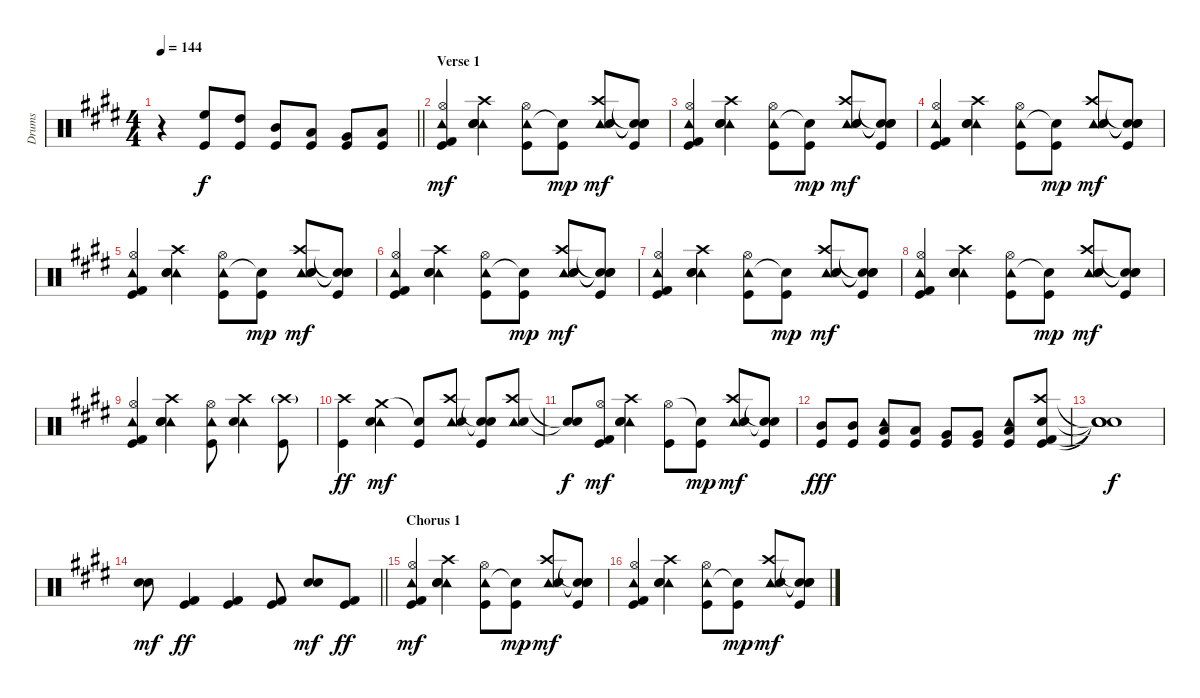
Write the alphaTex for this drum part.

\track ("Drums" "Drums") {instrument percussion}
\staff {score}
\articulation defaults
\ts (4 4)
\tempo 144
\clef neutral
\barLineRight lightlight
\ks c#minor
r.4{dy fff} ("High Floor Tom (hit)" "Kick (hit)").8{dy f} ("High Tom (hit)" "Kick (hit)").8 ("Mid Tom (hit)" "Kick (hit)").8 ("Low Tom (hit)" "Kick (hit)").8 ("Very Low Tom (hit)" "Kick (hit)").8 ("Low Floor Tom (hit)" "Kick (hit)").8 |
\section ("" "Verse 1")
\ks e
("Tambourine (hit)" "Hi-Hat (open)" "Kick (hit) 2" "Kick (hit)").4{dy mf} ("Crash high (hit)" "Tambourine (hit)" "Snare (hit) 2" "Electric Snare (hit)").4 ("Tambourine (hit)" "Hi-Hat (open)" "Kick (hit)").8 ("Snare (hit)"{t} "Kick (hit)").8{dy mp} ("Crash high (hit)" "Tambourine (hit)" "Snare (hit) 2" "Electric Snare (hit)").8{dy mf} ("Snare (hit)"{t} "Snare (hit)"{t} "Snare (hit)"{t} "Kick (hit)").8 |
\ks c#minor
("Tambourine (hit)" "Hi-Hat (open)" "Kick (hit) 2" "Kick (hit)").4 ("Crash high (hit)" "Tambourine (hit)" "Snare (hit) 2" "Electric Snare (hit)").4 ("Tambourine (hit)" "Hi-Hat (open)" "Kick (hit)").8 ("Snare (hit)"{t} "Kick (hit)").8{dy mp} ("Crash high (hit)" "Tambourine (hit)" "Snare (hit) 2" "Electric Snare (hit)").8{dy mf} ("Snare (hit)"{t} "Snare (hit)"{t} "Snare (hit)"{t} "Kick (hit)").8 |
("Tambourine (hit)" "Hi-Hat (open)" "Kick (hit) 2" "Kick (hit)").4 ("Crash high (hit)" "Tambourine (hit)" "Snare (hit) 2" "Electric Snare (hit)").4 ("Tambourine (hit)" "Hi-Hat (open)" "Kick (hit)").8 ("Snare (hit)"{t} "Kick (hit)").8{dy mp} ("Crash high (hit)" "Tambourine (hit)" "Snare (hit) 2" "Electric Snare (hit)").8{dy mf} ("Snare (hit)"{t} "Snare (hit)"{t} "Snare (hit)"{t} "Kick (hit)").8 |
("Tambourine (hit)" "Hi-Hat (open)" "Kick (hit) 2" "Kick (hit)").4 ("Crash high (hit)" "Tambourine (hit)" "Snare (hit) 2" "Electric Snare (hit)").4 ("Tambourine (hit)" "Hi-Hat (open)" "Kick (hit)").8 ("Snare (hit)"{t} "Kick (hit)").8{dy mp} ("Crash high (hit)" "Tambourine (hit)" "Snare (hit) 2" "Electric Snare (hit)").8{dy mf} ("Snare (hit)"{t} "Snare (hit)"{t} "Snare (hit)"{t} "Kick (hit)").8 |
\ks e
("Tambourine (hit)" "Hi-Hat (open)" "Kick (hit) 2" "Kick (hit)").4 ("Crash high (hit)" "Tambourine (hit)" "Snare (hit) 2" "Electric Snare (hit)").4 ("Tambourine (hit)" "Hi-Hat (open)" "Kick (hit)").8 ("Snare (hit)"{t} "Kick (hit)").8{dy mp} ("Crash high (hit)" "Tambourine (hit)" "Snare (hit) 2" "Electric Snare (hit)").8{dy mf} ("Snare (hit)"{t} "Snare (hit)"{t} "Snare (hit)"{t} "Kick (hit)").8 |
\ks c#minor
("Tambourine (hit)" "Hi-Hat (open)" "Kick (hit) 2" "Kick (hit)").4 ("Crash high (hit)" "Tambourine (hit)" "Snare (hit) 2" "Electric Snare (hit)").4 ("Tambourine (hit)" "Hi-Hat (open)" "Kick (hit)").8 ("Snare (hit)"{t} "Kick (hit)").8{dy mp} ("Crash high (hit)" "Tambourine (hit)" "Snare (hit) 2" "Electric Snare (hit)").8{dy mf} ("Snare (hit)"{t} "Snare (hit)"{t} "Snare (hit)"{t} "Kick (hit)").8 |
("Tambourine (hit)" "Hi-Hat (open)" "Kick (hit) 2" "Kick (hit)").4 ("Crash high (hit)" "Tambourine (hit)" "Snare (hit) 2" "Electric Snare (hit)").4 ("Tambourine (hit)" "Hi-Hat (open)" "Kick (hit)").8 ("Snare (hit)"{t} "Kick (hit)").8{dy mp} ("Crash high (hit)" "Tambourine (hit)" "Snare (hit) 2" "Electric Snare (hit)").8{dy mf} ("Snare (hit)"{t} "Snare (hit)"{t} "Snare (hit)"{t} "Kick (hit)").8 |
("Tambourine (hit)" "Hi-Hat (open)" "Kick (hit) 2" "Kick (hit)").4 ("Crash high (hit)" "Tambourine (hit)" "Snare (hit) 2" "Electric Snare (hit)").4 ("Tambourine (hit)" "Hi-Hat (open)" "Kick (hit)").8 ("Crash high (hit)" "Tambourine (hit)" "Snare (hit) 2").4 ("Crash high (hit)"{g} "Kick (hit)").8 |
\ks e
("Crash high (hit)" "Kick (hit)").4{dy ff} ("Crash medium (hit)" "Tambourine (hit)" "Snare (hit) 2").4{dy mf} ("Snare (hit)"{t} "Kick (hit)").8 ("Crash high (hit)" "Tambourine (hit)" "Snare (hit) 2").8 ("Snare (hit)"{t} "Snare (hit)"{t} "Kick (hit)").8 ("Crash high (hit)" "Tambourine (hit)" "Snare (hit) 2").8 |
\ks c#minor
("Snare (hit)"{t} "Snare (hit)"{t}).8{dy f} ("Hi-Hat (open)" "Kick (hit) 2" "Kick (hit)").8{dy mf} ("Crash high (hit)" "Tambourine (hit)" "Snare (hit) 2" "Electric Snare (hit)").4 ("Hi-Hat (open)" "Kick (hit)").8 ("Snare (hit)"{t} "Kick (hit)").8{dy mp} ("Crash high (hit)" "Tambourine (hit)" "Snare (hit) 2" "Electric Snare (hit)").8{dy mf} ("Snare (hit)"{t} "Snare (hit)"{t} "Kick (hit)").8 |
("Mid Tom (hit)" "Kick (hit)").8{dy fff} ("Mid Tom (hit)" "Kick (hit)").8 ("Tambourine (hit)" "Low Tom (hit)" "Kick (hit)").8 ("Low Tom (hit)" "Kick (hit)").8 ("Very Low Tom (hit)" "Kick (hit)").8 ("Very Low Tom (hit)" "Kick (hit)").8 ("Tambourine (hit)" "Low Floor Tom (hit)" "Kick (hit)").8 ("Crash high (hit)" "Snare (hit) 2" "Kick (hit) 2" "Kick (hit)").8 |
("Snare (hit)"{t} "Snare (hit)"{t} "Snare (hit)"{t} "Snare (hit)"{t}).1{dy f} |
\barLineRight lightlight
("Snare (hit) 2" "Electric Snare (hit)").8{dy mf} ("Kick (hit) 2" "Kick (hit)").4{dy ff} ("Kick (hit) 2" "Kick (hit)").4 ("Kick (hit) 2" "Kick (hit)").8 ("Snare (hit) 2" "Electric Snare (hit)").8{dy mf} ("Kick (hit) 2" "Kick (hit)").8{dy ff} |
\section ("" "Chorus 1")
("Tambourine (hit)" "Hi-Hat (open)" "Kick (hit) 2" "Kick (hit)").4{dy mf} ("Crash high (hit)" "Tambourine (hit)" "Snare (hit) 2" "Electric Snare (hit)").4 ("Tambourine (hit)" "Hi-Hat (open)" "Kick (hit)").8 ("Snare (hit)"{t} "Kick (hit)").8{dy mp} ("Crash high (hit)" "Tambourine (hit)" "Snare (hit) 2" "Electric Snare (hit)").8{dy mf} ("Snare (hit)"{t} "Snare (hit)"{t} "Snare (hit)"{t} "Kick (hit)").8 |
\ks e
("Tambourine (hit)" "Hi-Hat (open)" "Kick (hit) 2" "Kick (hit)").4 ("Crash high (hit)" "Tambourine (hit)" "Snare (hit) 2" "Electric Snare (hit)").4 ("Tambourine (hit)" "Hi-Hat (open)" "Kick (hit)").8 ("Snare (hit)"{t} "Kick (hit)").8{dy mp} ("Crash high (hit)" "Tambourine (hit)" "Snare (hit) 2" "Electric Snare (hit)").8{dy mf} ("Snare (hit)"{t} "Snare (hit)"{t} "Snare (hit)"{t} "Kick (hit)").8
